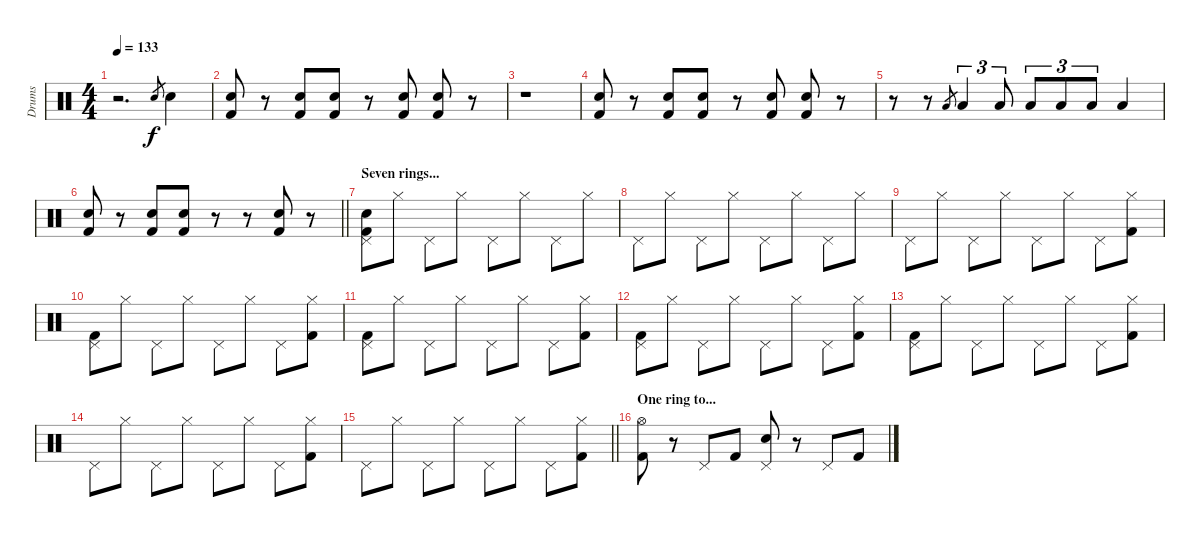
\track ("Drums" "Drums") {instrument percussion}
\staff {score}
\articulation defaults
\ts (4 4)
\tempo 133
\clef neutral
\ks c
r.2{d dy f} "Snare (hit) 2".8{gr} "Snare (hit) 2".4 |
("Snare (hit) 2" "Kick (hit) 2").8 r.8 ("Snare (hit) 2" "Kick (hit) 2").8 ("Snare (hit) 2" "Kick (hit) 2").8 r.8 ("Snare (hit) 2" "Kick (hit) 2").8 ("Snare (hit) 2" "Kick (hit) 2").8 r.8 |
r.1 |
("Snare (hit) 2" "Kick (hit) 2").8 r.8 ("Snare (hit) 2" "Kick (hit) 2").8 ("Snare (hit) 2" "Kick (hit) 2").8 r.8 ("Snare (hit) 2" "Kick (hit) 2").8 ("Snare (hit) 2" "Kick (hit) 2").8 r.8 |
r.8 r.8 "Low Tom (hit)".8{gr} "Low Tom (hit)".4{tu (3 2)} "Low Tom (hit)".8{tu (3 2)} "Low Tom (hit)".8{tu (3 2)} "Low Tom (hit)".8{tu (3 2)} "Low Tom (hit)".8{tu (3 2)} "Low Tom (hit)".4 |
\barLineRight lightlight
("Snare (hit) 2" "Kick (hit) 2").8 r.8 ("Snare (hit) 2" "Kick (hit) 2").8 ("Snare (hit) 2" "Kick (hit) 2").8 r.8 r.8 ("Snare (hit) 2" "Kick (hit) 2").8 r.8 |
\section ("" "Seven rings...")
("Pedal Hi-Hat (hit)" "Snare (hit) 2" "Kick (hit) 2").8 "Hi-Hat (closed)".8 "Pedal Hi-Hat (hit)".8 "Hi-Hat (closed)".8 "Pedal Hi-Hat (hit)".8 "Hi-Hat (closed)".8 "Pedal Hi-Hat (hit)".8 "Hi-Hat (closed)".8 |
"Pedal Hi-Hat (hit)".8 "Hi-Hat (closed)".8 "Pedal Hi-Hat (hit)".8 "Hi-Hat (closed)".8 "Pedal Hi-Hat (hit)".8 "Hi-Hat (closed)".8 "Pedal Hi-Hat (hit)".8 "Hi-Hat (closed)".8 |
"Pedal Hi-Hat (hit)".8 "Hi-Hat (closed)".8 "Pedal Hi-Hat (hit)".8 "Hi-Hat (closed)".8 "Pedal Hi-Hat (hit)".8 "Hi-Hat (closed)".8 "Pedal Hi-Hat (hit)".8 ("Hi-Hat (closed)" "Kick (hit) 2").8 |
("Pedal Hi-Hat (hit)" "Kick (hit) 2").8 "Hi-Hat (closed)".8 "Pedal Hi-Hat (hit)".8 "Hi-Hat (closed)".8 "Pedal Hi-Hat (hit)".8 "Hi-Hat (closed)".8 "Pedal Hi-Hat (hit)".8 ("Hi-Hat (closed)" "Kick (hit) 2").8 |
("Pedal Hi-Hat (hit)" "Kick (hit) 2").8 "Hi-Hat (closed)".8 "Pedal Hi-Hat (hit)".8 "Hi-Hat (closed)".8 "Pedal Hi-Hat (hit)".8 "Hi-Hat (closed)".8 "Pedal Hi-Hat (hit)".8 ("Hi-Hat (closed)" "Kick (hit) 2").8 |
("Pedal Hi-Hat (hit)" "Kick (hit) 2").8 "Hi-Hat (closed)".8 "Pedal Hi-Hat (hit)".8 "Hi-Hat (closed)".8 "Pedal Hi-Hat (hit)".8 "Hi-Hat (closed)".8 "Pedal Hi-Hat (hit)".8 ("Hi-Hat (closed)" "Kick (hit) 2").8 |
("Pedal Hi-Hat (hit)" "Kick (hit) 2").8 "Hi-Hat (closed)".8 "Pedal Hi-Hat (hit)".8 "Hi-Hat (closed)".8 "Pedal Hi-Hat (hit)".8 "Hi-Hat (closed)".8 "Pedal Hi-Hat (hit)".8 ("Hi-Hat (closed)" "Kick (hit) 2").8 |
"Pedal Hi-Hat (hit)".8 "Hi-Hat (closed)".8 "Pedal Hi-Hat (hit)".8 "Hi-Hat (closed)".8 "Pedal Hi-Hat (hit)".8 "Hi-Hat (closed)".8 "Pedal Hi-Hat (hit)".8 ("Hi-Hat (closed)" "Kick (hit) 2").8 |
\barLineRight lightlight "Pedal Hi-Hat (hit)".8 "Hi-Hat (closed)".8 "Pedal Hi-Hat (hit)".8 "Hi-Hat (closed)".8 "Pedal Hi-Hat (hit)".8 "Hi-Hat (closed)".8 "Pedal Hi-Hat (hit)".8
("Hi-Hat (closed)" "Kick (hit) 2").8 |
\section ("" "One ring to...")
("Hi-Hat (open)" "Kick (hit) 2").8 r.8 "Pedal Hi-Hat (hit)".8 "Kick (hit) 2".8 ("Pedal Hi-Hat (hit)" "Snare (hit) 2").8 r.8 "Pedal Hi-Hat (hit)".8 "Kick (hit) 2".8
